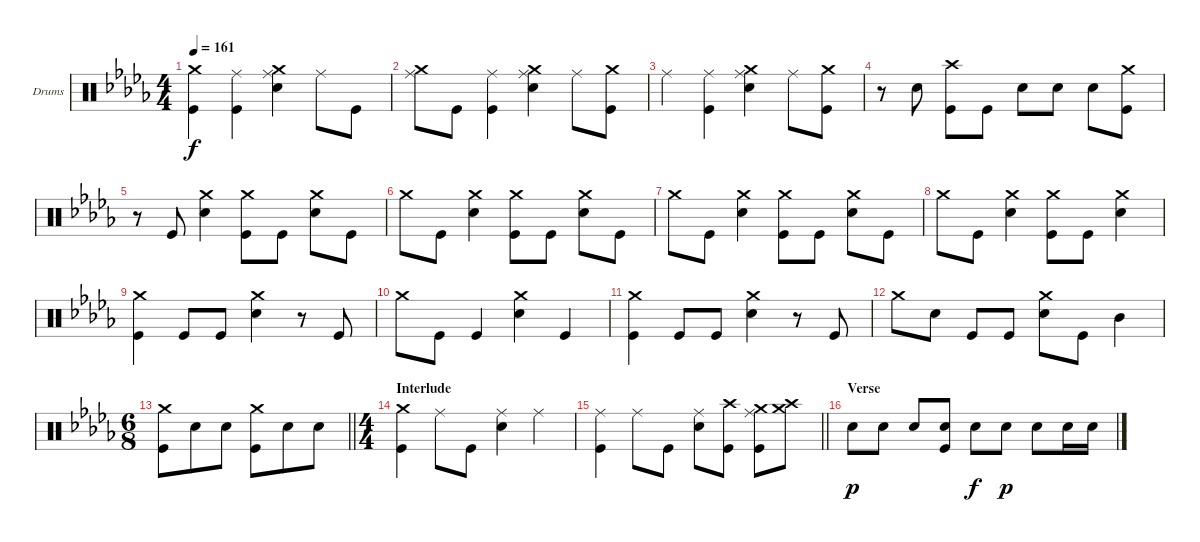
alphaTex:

\bracketExtendMode groupsimilarinstruments
\firstSystemTrackNameOrientation horizontal
\otherSystemsTrackNameOrientation horizontal
\track ("Drumkit" "Drums") {instrument percussion}
\staff {score}
\articulation defaults
\ts (4 4)
\tempo 161
\clef neutral
\ks db
("Kick (hit)" "Crash medium (hit)").4{dy f} ("Kick (hit)" "Ride (middle)").4 ("Snare (hit) 2" "Crash medium (hit)" "Ride (middle)").4 "Ride (middle)".8 "Kick (hit)".8 |
("Crash medium (hit)" "Ride (middle)").8 "Kick (hit)".8 ("Kick (hit)" "Ride (middle)").4 ("Snare (hit) 2" "Crash medium (hit)" "Ride (middle)").4 "Ride (middle)".8 ("Kick (hit)" "Crash medium (hit)").8 |
"Ride (middle)".4 ("Ride (middle)" "Kick (hit)").4 ("Snare (hit) 2" "Crash medium (hit)" "Ride (middle)").4 "Ride (middle)".8 ("Kick (hit)" "Crash medium (hit)").8 |
r.8 "Snare (hit) 2".8 ("Kick (hit)" "Crash high (hit)").8 "Kick (hit)".8 "Snare (hit) 2".8 "Snare (hit) 2".8 "Snare (hit) 2".8 ("Crash medium (hit)" "Kick (hit)").8 |
r.8 "Kick (hit)".8 ("Snare (hit) 2" "Crash medium (hit)").4 ("Kick (hit)" "Crash medium (hit)").8 "Kick (hit)".8 ("Snare (hit) 2" "Crash medium (hit)").8 "Kick (hit)".8 |
"Crash medium (hit)".8 "Kick (hit)".8 ("Snare (hit) 2" "Crash medium (hit)").4 ("Kick (hit)" "Crash medium (hit)").8 "Kick (hit)".8 ("Snare (hit) 2" "Crash medium (hit)").8 "Kick (hit)".8 |
"Crash medium (hit)".8 "Kick (hit)".8 ("Snare (hit) 2" "Crash medium (hit)").4 ("Kick (hit)" "Crash medium (hit)").8 "Kick (hit)".8 ("Snare (hit) 2" "Crash medium (hit)").8 "Kick (hit)".8 |
"Crash medium (hit)".8 "Kick (hit)".8 ("Snare (hit) 2" "Crash medium (hit)").4 ("Kick (hit)" "Crash medium (hit)").8 "Kick (hit)".8 ("Snare (hit) 2" "Crash medium (hit)").4 |
("Crash medium (hit)" "Kick (hit)").4 "Kick (hit)".8 "Kick (hit)".8 ("Snare (hit) 2" "Crash medium (hit)").4 r.8 "Kick (hit)".8 |
"Crash medium (hit)".8 "Kick (hit)".8 "Kick (hit)".4 ("Snare (hit) 2" "Crash medium (hit)").4 "Kick (hit)".4 |
("Crash medium (hit)" "Kick (hit)").4 "Kick (hit)".8 "Kick (hit)".8 ("Snare (hit) 2" "Crash medium (hit)").4 r.8 "Kick (hit)".8 |
"Crash medium (hit)".8 "Snare (hit) 2".8 "Kick (hit)".8 "Kick (hit)".8 ("Snare (hit) 2" "Crash medium (hit)").8 "Kick (hit)".8 "Mid Tom (hit)".4 |
\ts (6 8)
\beaming (8 3 3)
\barLineRight lightlight
("Kick (hit)" "Crash medium (hit)").8 "Snare (hit) 2".8 "Snare (hit) 2".8 ("Kick (hit)" "Crash medium (hit)").8 "Snare (hit) 2".8 "Snare (hit) 2".8 |
\ts (4 4)
\beaming (8 2 2 2 2)
\section ("" "Interlude")
("Crash medium (hit)" "Kick (hit)").4 "Ride (middle)".8 "Kick (hit)".8 ("Snare (hit) 2" "Ride (middle)").4 "Ride (middle)".4 |
\barLineRight lightlight
("Ride (middle)" "Kick (hit)").4 "Ride (middle)".8 "Kick (hit)".8 ("Snare (hit) 2" "Ride (middle)").8 ("Kick (hit)" "Crash high (hit)").8 ("Kick (hit)" "Ride (middle)" "Crash medium (hit)").8 ("Crash high (hit)" "Crash medium (hit)").8 |
\section ("" "Verse")
"Snare (hit) 2".8{dy p} "Snare (hit) 2".8 "Snare (hit) 2".8 ("Snare (hit) 2" "Kick (hit)").8 "Snare (hit) 2".8{dy f} "Snare (hit) 2".8{dy p} "Snare (hit) 2".8 "Snare (hit) 2".16 "Snare (hit) 2".16
